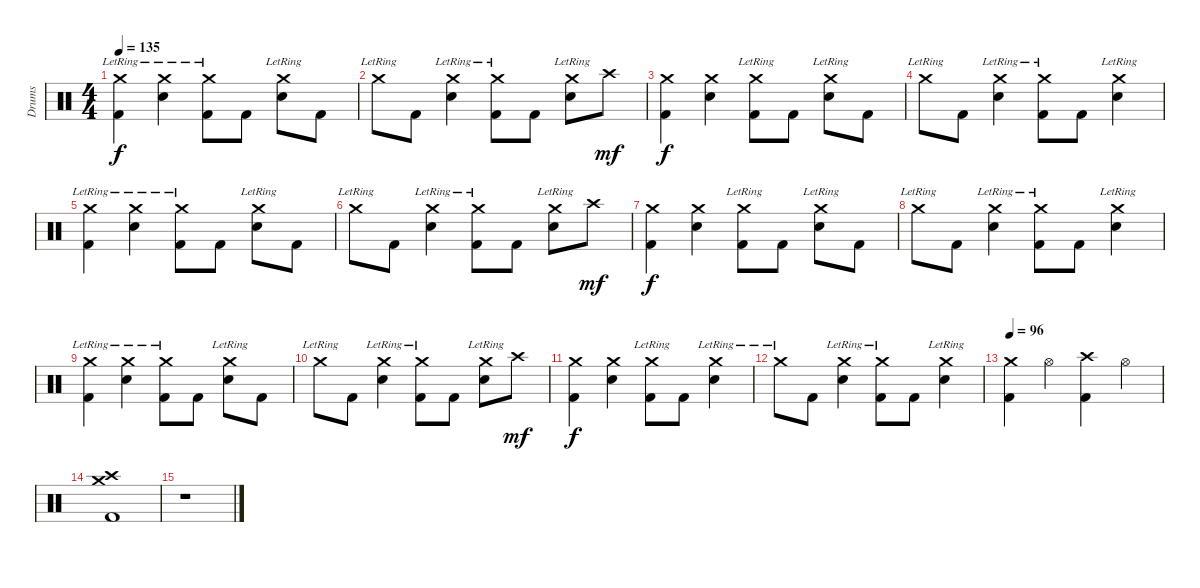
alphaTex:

\track ("Drums" "Drums") {instrument percussion}
\staff {score}
\articulation defaults
\ts (4 4)
\tempo 135
\clef neutral
\ks c
("Crash medium (hit)"{lr} "Kick (hit) 2").4{dy f} ("Crash medium (hit)"{lr} "Electric Snare (hit)").4 ("Crash medium (hit)"{lr} "Kick (hit) 2").8 "Kick (hit) 2".8 ("Crash medium (hit)"{lr} "Electric Snare (hit)").8 "Kick (hit) 2".8 |
"Crash medium (hit)"{lr}.8 "Kick (hit) 2".8 ("Crash medium (hit)"{lr} "Electric Snare (hit)").4 ("Crash medium (hit)"{lr} "Kick (hit) 2").8 "Kick (hit) 2".8 ("Crash medium (hit)"{lr} "Electric Snare (hit)").8 "Crash high (hit)".8{dy mf} |
("Crash medium (hit)" "Kick (hit) 2").4{dy f} ("Crash medium (hit)" "Electric Snare (hit)").4 ("Crash medium (hit)"{lr} "Kick (hit) 2").8 "Kick (hit) 2".8 ("Crash medium (hit)"{lr} "Electric Snare (hit)").8 "Kick (hit) 2".8 |
"Crash medium (hit)"{lr}.8 "Kick (hit) 2".8 ("Crash medium (hit)"{lr} "Electric Snare (hit)").4 ("Crash medium (hit)"{lr} "Kick (hit) 2").8 "Kick (hit) 2".8 ("Crash medium (hit)"{lr} "Electric Snare (hit)").4 |
("Crash medium (hit)"{lr} "Kick (hit) 2").4 ("Crash medium (hit)"{lr} "Electric Snare (hit)").4 ("Crash medium (hit)"{lr} "Kick (hit) 2").8 "Kick (hit) 2".8 ("Crash medium (hit)"{lr} "Electric Snare (hit)").8 "Kick (hit) 2".8 |
"Crash medium (hit)"{lr}.8 "Kick (hit) 2".8 ("Crash medium (hit)"{lr} "Electric Snare (hit)").4 ("Crash medium (hit)"{lr} "Kick (hit) 2").8 "Kick (hit) 2".8 ("Crash medium (hit)"{lr} "Electric Snare (hit)").8 "Crash high (hit)".8{dy mf} |
("Crash medium (hit)" "Kick (hit) 2").4{dy f} ("Crash medium (hit)" "Electric Snare (hit)").4 ("Crash medium (hit)"{lr} "Kick (hit) 2").8 "Kick (hit) 2".8 ("Crash medium (hit)"{lr} "Electric Snare (hit)").8 "Kick (hit) 2".8 |
"Crash medium (hit)"{lr}.8 "Kick (hit) 2".8 ("Crash medium (hit)"{lr} "Electric Snare (hit)").4 ("Crash medium (hit)"{lr} "Kick (hit) 2").8 "Kick (hit) 2".8 ("Crash medium (hit)"{lr} "Electric Snare (hit)").4 |
("Crash medium (hit)"{lr} "Kick (hit) 2").4 ("Crash medium (hit)"{lr} "Electric Snare (hit)").4 ("Crash medium (hit)"{lr} "Kick (hit) 2").8 "Kick (hit) 2".8 ("Crash medium (hit)"{lr} "Electric Snare (hit)").8 "Kick (hit) 2".8 |
"Crash medium (hit)"{lr}.8 "Kick (hit) 2".8 ("Crash medium (hit)"{lr} "Electric Snare (hit)").4 ("Crash medium (hit)"{lr} "Kick (hit) 2").8 "Kick (hit) 2".8 ("Crash medium (hit)"{lr} "Electric Snare (hit)").8 "Crash high (hit)".8{dy mf} |
("Crash medium (hit)" "Kick (hit) 2").4{dy f} ("Crash medium (hit)" "Electric Snare (hit)").4 ("Crash medium (hit)"{lr} "Kick (hit) 2").8 "Kick (hit) 2".8 ("Crash medium (hit)"{lr} "Electric Snare (hit)").4 |
"Crash medium (hit)"{lr}.8 "Kick (hit) 2".8 ("Crash medium (hit)"{lr} "Electric Snare (hit)").4 ("Crash medium (hit)"{lr} "Kick (hit) 2").8 "Kick (hit) 2".8 ("Crash medium (hit)"{lr} "Electric Snare (hit)").4 |
\tempo 96
("Crash medium (hit)" "Kick (hit) 2").4 "Hi-Hat (open)".4 ("Crash high (hit)" "Kick (hit) 2").4 "Hi-Hat (open)".4 |
("Crash medium (hit)" "Crash high (hit)" "Kick (hit) 2").1 |
r.1
